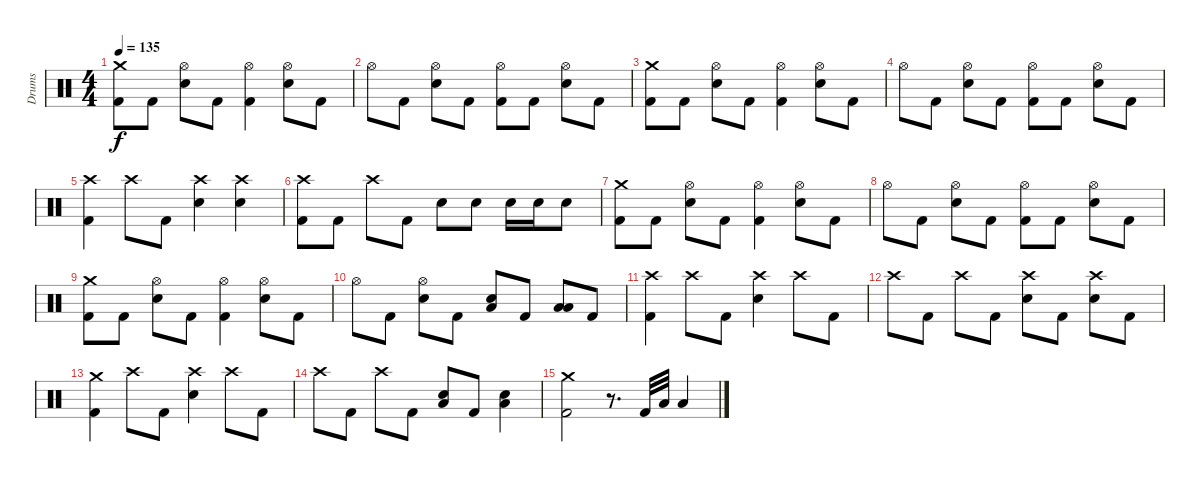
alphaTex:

\track ("Drums" "Drums") {instrument percussion}
\staff {score}
\articulation defaults
\ts (4 4)
\tempo 135
\clef neutral
\ks c
("Crash medium (hit)" "Kick (hit) 2").8{dy f} "Kick (hit) 2".8 ("Hi-Hat (open)" "Electric Snare (hit)").8 "Kick (hit) 2".8 ("Hi-Hat (open)" "Kick (hit) 2").4 ("Hi-Hat (open)" "Electric Snare (hit)").8 "Kick (hit) 2".8 |
"Hi-Hat (open)".8 "Kick (hit) 2".8 ("Hi-Hat (open)" "Electric Snare (hit)").8 "Kick (hit) 2".8 ("Hi-Hat (open)" "Kick (hit) 2").8 "Kick (hit) 2".8 ("Hi-Hat (open)" "Electric Snare (hit)").8 "Kick (hit) 2".8 |
("Crash medium (hit)" "Kick (hit) 2").8 "Kick (hit) 2".8 ("Hi-Hat (open)" "Electric Snare (hit)").8 "Kick (hit) 2".8 ("Hi-Hat (open)" "Kick (hit) 2").4 ("Hi-Hat (open)" "Electric Snare (hit)").8 "Kick (hit) 2".8 |
"Hi-Hat (open)".8 "Kick (hit) 2".8 ("Hi-Hat (open)" "Electric Snare (hit)").8 "Kick (hit) 2".8 ("Hi-Hat (open)" "Kick (hit) 2").8 "Kick (hit) 2".8 ("Hi-Hat (open)" "Electric Snare (hit)").8 "Kick (hit) 2".8 |
("Crash high (hit)" "Kick (hit) 2").4 "Crash high (hit)".8 "Kick (hit) 2".8 ("Crash high (hit)" "Electric Snare (hit)").4 ("Crash high (hit)" "Electric Snare (hit)").4 |
("Crash high (hit)" "Kick (hit) 2").8 "Kick (hit) 2".8 "Crash high (hit)".8 "Kick (hit) 2".8 "Electric Snare (hit)".8 "Electric Snare (hit)".8 "Electric Snare (hit)".16 "Electric Snare (hit)".16 "Electric Snare (hit)".8 |
("Crash medium (hit)" "Kick (hit) 2").8 "Kick (hit) 2".8 ("Hi-Hat (open)" "Electric Snare (hit)").8 "Kick (hit) 2".8 ("Hi-Hat (open)" "Kick (hit) 2").4 ("Hi-Hat (open)" "Electric Snare (hit)").8 "Kick (hit) 2".8 |
"Hi-Hat (open)".8 "Kick (hit) 2".8 ("Hi-Hat (open)" "Electric Snare (hit)").8 "Kick (hit) 2".8 ("Hi-Hat (open)" "Kick (hit) 2").8 "Kick (hit) 2".8 ("Hi-Hat (open)" "Electric Snare (hit)").8 "Kick (hit) 2".8 |
("Crash medium (hit)" "Kick (hit) 2").8 "Kick (hit) 2".8 ("Hi-Hat (open)" "Electric Snare (hit)").8 "Kick (hit) 2".8 ("Hi-Hat (open)" "Kick (hit) 2").4 ("Hi-Hat (open)" "Electric Snare (hit)").8 "Kick (hit) 2".8 |
"Hi-Hat (open)".8 "Kick (hit) 2".8 ("Hi-Hat (open)" "Electric Snare (hit)").8 "Kick (hit) 2".8 ("Low Floor Tom (hit)" "Electric Snare (hit)").8 "Kick (hit) 2".8 ("Low Tom (hit)" "Low Floor Tom (hit)").8 "Kick (hit) 2".8 |
("Crash high (hit)" "Kick (hit) 2").4 "Crash high (hit)".8 "Kick (hit) 2".8 ("Crash high (hit)" "Electric Snare (hit)").4 "Crash high (hit)".8 "Kick (hit) 2".8 |
"Crash high (hit)".8 "Kick (hit) 2".8 "Crash high (hit)".8 "Kick (hit) 2".8 ("Crash high (hit)" "Electric Snare (hit)").8 "Kick (hit) 2".8 ("Crash high (hit)" "Electric Snare (hit)").8 "Kick (hit) 2".8 |
("Crash medium (hit)" "Kick (hit) 2").4 "Crash high (hit)".8 "Kick (hit) 2".8 ("Crash high (hit)" "Electric Snare (hit)").4 "Crash high (hit)".8 "Kick (hit) 2".8 |
"Crash high (hit)".8 "Kick (hit) 2".8 "Crash high (hit)".8 "Kick (hit) 2".8 ("Low Floor Tom (hit)" "Electric Snare (hit)").8 "Kick (hit) 2".8 ("Low Tom (hit)" "Electric Snare (hit)").4 |
("Crash medium (hit)" "Kick (hit) 2").2 r.8{d} "Kick (hit) 2".32 "Low Tom (hit)".32 "Low Floor Tom (hit)".4
